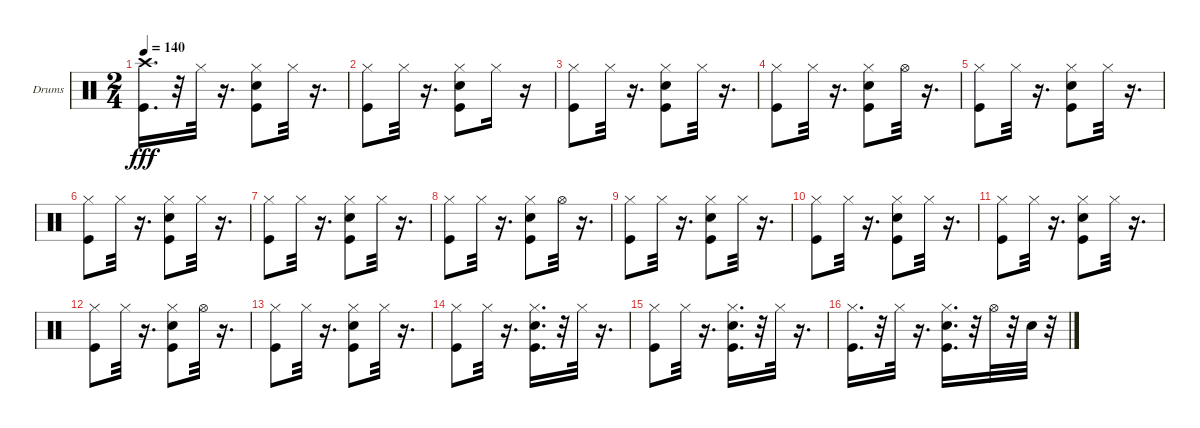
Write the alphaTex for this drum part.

\bracketExtendMode groupsimilarinstruments
\firstSystemTrackNameOrientation horizontal
\otherSystemsTrackNameOrientation horizontal
\track ("Ударные" "Drums") {instrument percussion}
\staff {score}
\articulation defaults
\ts (2 4)
\tempo 140
\clef neutral
\ks c
("Kick (hit)" "Crash high (hit)").16{d dy fff} r.32 "Hi-Hat (closed)".32 r.16{d} ("Kick (hit)" "Snare (hit) 2" "Hi-Hat (closed)").8 "Hi-Hat (closed)".32 r.16{d} |
("Kick (hit)" "Hi-Hat (closed)").8 "Hi-Hat (closed)".32 r.16{d} ("Snare (hit) 2" "Kick (hit)" "Hi-Hat (closed)").8 "Hi-Hat (closed)".16 r.16 |
("Kick (hit)" "Hi-Hat (closed)").8 "Hi-Hat (closed)".32 r.16{d} ("Hi-Hat (closed)" "Snare (hit) 2" "Kick (hit)").8 "Hi-Hat (closed)".32 r.16{d} |
("Kick (hit)" "Hi-Hat (closed)").8 "Hi-Hat (closed)".32 r.16{d} ("Kick (hit)" "Snare (hit) 2" "Hi-Hat (closed)").8 "Hi-Hat (open)".32 r.16{d} |
("Kick (hit)" "Hi-Hat (closed)").8 "Hi-Hat (closed)".32 r.16{d} ("Kick (hit)" "Hi-Hat (closed)" "Snare (hit) 2").8 "Hi-Hat (closed)".32 r.16{d} |
("Kick (hit)" "Hi-Hat (closed)").8 "Hi-Hat (closed)".32 r.16{d} ("Snare (hit) 2" "Kick (hit)" "Hi-Hat (closed)").8 "Hi-Hat (closed)".32 r.16{d} |
("Kick (hit)" "Hi-Hat (closed)").8 "Hi-Hat (closed)".32 r.16{d} ("Snare (hit) 2" "Kick (hit)" "Hi-Hat (closed)").8 "Hi-Hat (closed)".32 r.16{d} |
("Kick (hit)" "Hi-Hat (closed)").8 "Hi-Hat (closed)".32 r.16{d} ("Snare (hit) 2" "Kick (hit)" "Hi-Hat (closed)").8 "Hi-Hat (open)".32 r.16{d} |
("Kick (hit)" "Hi-Hat (closed)").8 "Hi-Hat (closed)".32 r.16{d} ("Snare (hit) 2" "Kick (hit)" "Hi-Hat (closed)").8 "Hi-Hat (closed)".32 r.16{d} |
("Kick (hit)" "Hi-Hat (closed)").8 "Hi-Hat (closed)".32 r.16{d} ("Hi-Hat (closed)" "Snare (hit) 2" "Kick (hit)").8 "Hi-Hat (closed)".32 r.16{d} |
("Kick (hit)" "Hi-Hat (closed)").8 "Hi-Hat (closed)".32 r.16{d} ("Hi-Hat (closed)" "Snare (hit) 2" "Kick (hit)").8 "Hi-Hat (closed)".32 r.16{d} |
("Kick (hit)" "Hi-Hat (closed)").8 "Hi-Hat (closed)".32 r.16{d} ("Snare (hit) 2" "Kick (hit)" "Hi-Hat (closed)").8 "Hi-Hat (open)".32 r.16{d} |
("Kick (hit)" "Hi-Hat (closed)").8 "Hi-Hat (closed)".32 r.16{d} ("Snare (hit) 2" "Kick (hit)" "Hi-Hat (closed)").8 "Hi-Hat (closed)".32 r.16{d} |
("Kick (hit)" "Hi-Hat (closed)").8 "Hi-Hat (closed)".32 r.16{d} ("Snare (hit) 2" "Kick (hit)" "Hi-Hat (closed)").16{d} r.32 "Hi-Hat (closed)".32 r.16{d} |
("Kick (hit)" "Hi-Hat (closed)").8 "Hi-Hat (closed)".32 r.16{d} ("Hi-Hat (closed)" "Snare (hit) 2" "Kick (hit)").16{d} r.32 "Hi-Hat (closed)".32 r.16{d} |
("Kick (hit)" "Hi-Hat (closed)").16{d} r.32 "Hi-Hat (closed)".32 r.16{d} ("Snare (hit) 2" "Kick (hit)" "Hi-Hat (closed)").16{d} r.32 "Hi-Hat (open)".32 r.32 "Snare (hit) 2".32 r.32
